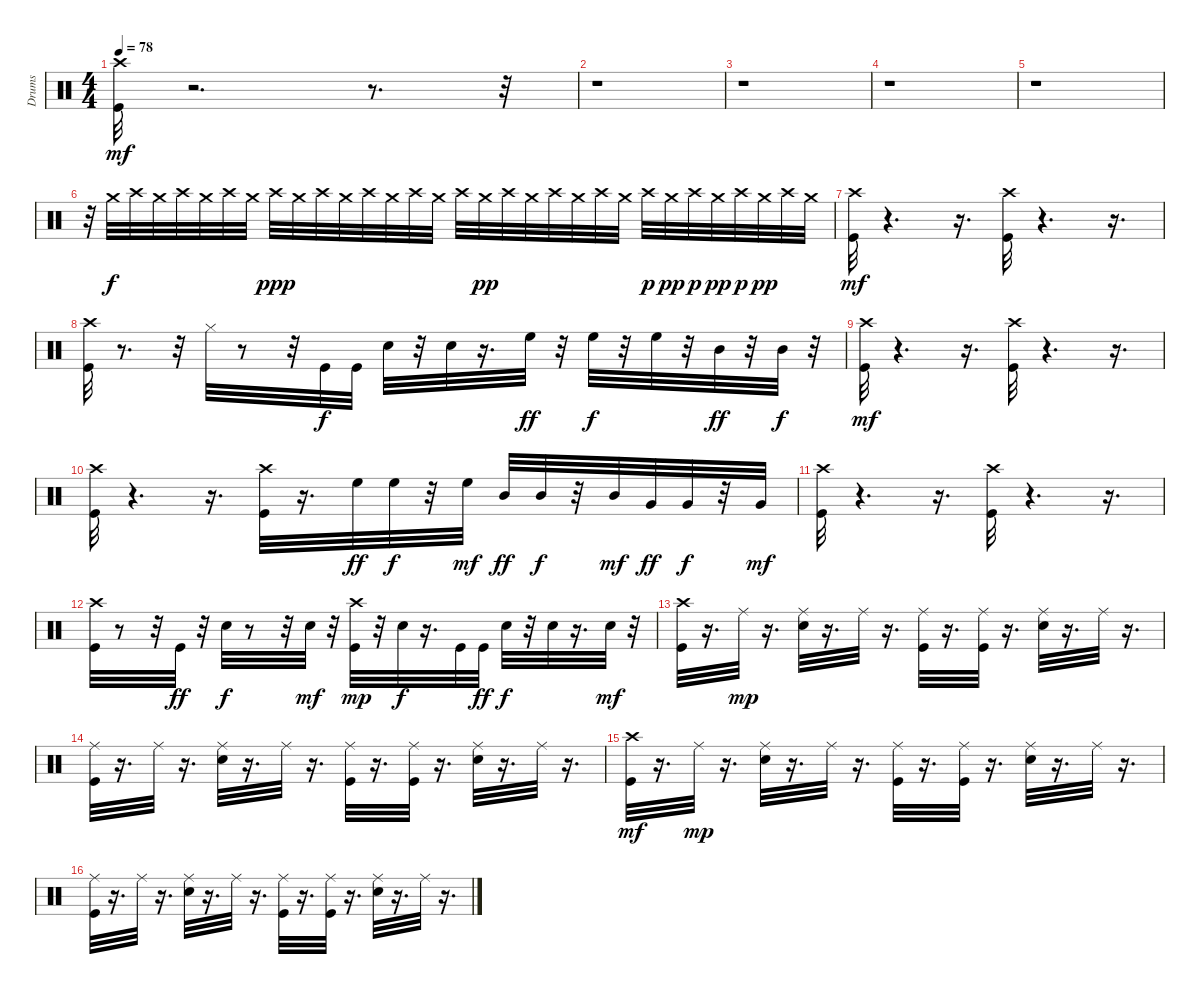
\track ("Drums" "Drums") {instrument percussion}
\staff {score}
\articulation defaults
\ts (4 4)
\tempo 78
\clef neutral
\ks c
("Kick (hit)" "Crash high (hit)").32{dy mf} r.2{d} r.8{d} r.32 |
r.1 |
r.1 |
r.1 |
r.1 |
r.32 "Crash medium (hit)".32{dy f} "Crash high (hit)".32 "Crash medium (hit)".32 "Crash high (hit)".32 "Crash medium (hit)".32 "Crash high (hit)".32 "Crash medium (hit)".32 "Crash high (hit)".32{dy ppp} "Crash medium (hit)".32 "Crash high (hit)".32 "Crash medium (hit)".32 "Crash high (hit)".32 "Crash medium (hit)".32 "Crash high (hit)".32 "Crash medium (hit)".32 "Crash high (hit)".32 "Crash medium (hit)".32{dy pp} "Crash high (hit)".32 "Crash medium (hit)".32 "Crash high (hit)".32 "Crash medium (hit)".32 "Crash high (hit)".32 "Crash medium (hit)".32 "Crash high (hit)".32{dy p} "Crash medium (hit)".32{dy pp} "Crash high (hit)".32{dy p} "Crash medium (hit)".32{dy pp} "Crash high (hit)".32{dy p} "Crash medium (hit)".32{dy pp} "Crash high (hit)".32 "Crash medium (hit)".32 |
("Kick (hit)" "Crash high (hit)").32{dy mf} r.4{d} r.16{d} ("Kick (hit)" "Crash high (hit)").32 r.4{d} r.16{d} |
("Kick (hit)" "Crash high (hit)").32 r.8{d} r.32 "Hi-Hat (closed)".32 r.8 r.32 "Kick (hit)".32{dy f} "Kick (hit)".32 "Snare (hit) 2".32 r.32 "Snare (hit) 2".32 r.16{d} "High Floor Tom (hit)".32{dy ff} r.32 "High Floor Tom (hit)".32{dy f} r.32 "High Floor Tom (hit)".32 r.32 "Mid Tom (hit)".32{dy ff} r.32 "Mid Tom (hit)".32{dy f} r.32 |
("Kick (hit)" "Crash high (hit)").32{dy mf} r.4{d} r.16{d} ("Kick (hit)" "Crash high (hit)").32 r.4{d} r.16{d} |
("Kick (hit)" "Crash high (hit)").32 r.4{d} r.16{d} ("Kick (hit)" "Crash high (hit)").32 r.16{d} "High Floor Tom (hit)".32{dy ff} "High Floor Tom (hit)".32{dy f} r.32 "High Floor Tom (hit)".32{dy mf} "Mid Tom (hit)".32{dy ff} "Mid Tom (hit)".32{dy f} r.32 "Mid Tom (hit)".32{dy mf} "Very Low Tom (hit)".32{dy ff} "Very Low Tom (hit)".32{dy f} r.32 "Very Low Tom (hit)".32{dy mf} |
("Kick (hit)" "Crash high (hit)").32 r.4{d} r.16{d} ("Kick (hit)" "Crash high (hit)").32 r.4{d} r.16{d} |
("Kick (hit)" "Crash high (hit)").32 r.8 r.32 "Kick (hit)".32{dy ff} r.32 "Snare (hit) 2".32{dy f} r.8 r.32 "Snare (hit) 2".32{dy mf} r.32 ("Kick (hit)" "Crash high (hit)").32{dy mp} r.32 "Snare (hit) 2".32{dy f} r.16{d} "Kick (hit)".32 "Kick (hit)".32{dy ff} "Snare (hit) 2".32{dy f} r.32 "Snare (hit) 2".32 r.16{d} "Snare (hit) 2".32{dy mf} r.32 |
("Kick (hit)" "Crash high (hit)").32 r.16{d} "Ride (middle)".32{dy mp} r.16{d} ("Snare (hit) 2" "Ride (middle)").32 r.16{d} "Ride (middle)".32 r.16{d} ("Kick (hit)" "Ride (middle)").32 r.16{d} ("Kick (hit)" "Ride (middle)").32 r.16{d} ("Snare (hit) 2" "Ride (middle)").32 r.16{d} "Ride (middle)".32 r.16{d} |
("Kick (hit)" "Ride (middle)").32 r.16{d} "Ride (middle)".32 r.16{d} ("Snare (hit) 2" "Ride (middle)").32 r.16{d} "Ride (middle)".32 r.16{d} ("Kick (hit)" "Ride (middle)").32 r.16{d} ("Kick (hit)" "Ride (middle)").32 r.16{d} ("Snare (hit) 2" "Ride (middle)").32 r.16{d} "Ride (middle)".32 r.16{d} |
("Kick (hit)" "Crash high (hit)").32{dy mf} r.16{d} "Ride (middle)".32{dy mp} r.16{d} ("Snare (hit) 2" "Ride (middle)").32 r.16{d} "Ride (middle)".32 r.16{d} ("Kick (hit)" "Ride (middle)").32 r.16{d} ("Kick (hit)" "Ride (middle)").32 r.16{d} ("Snare (hit) 2" "Ride (middle)").32 r.16{d} "Ride (middle)".32 r.16{d} |
("Kick (hit)" "Ride (middle)").32 r.16{d} "Ride (middle)".32 r.16{d} ("Snare (hit) 2" "Ride (middle)").32 r.16{d} "Ride (middle)".32 r.16{d} ("Kick (hit)" "Ride (middle)").32 r.16{d} ("Kick (hit)" "Ride (middle)").32 r.16{d} ("Snare (hit) 2" "Ride (middle)").32 r.16{d} "Ride (middle)".32 r.16{d}
